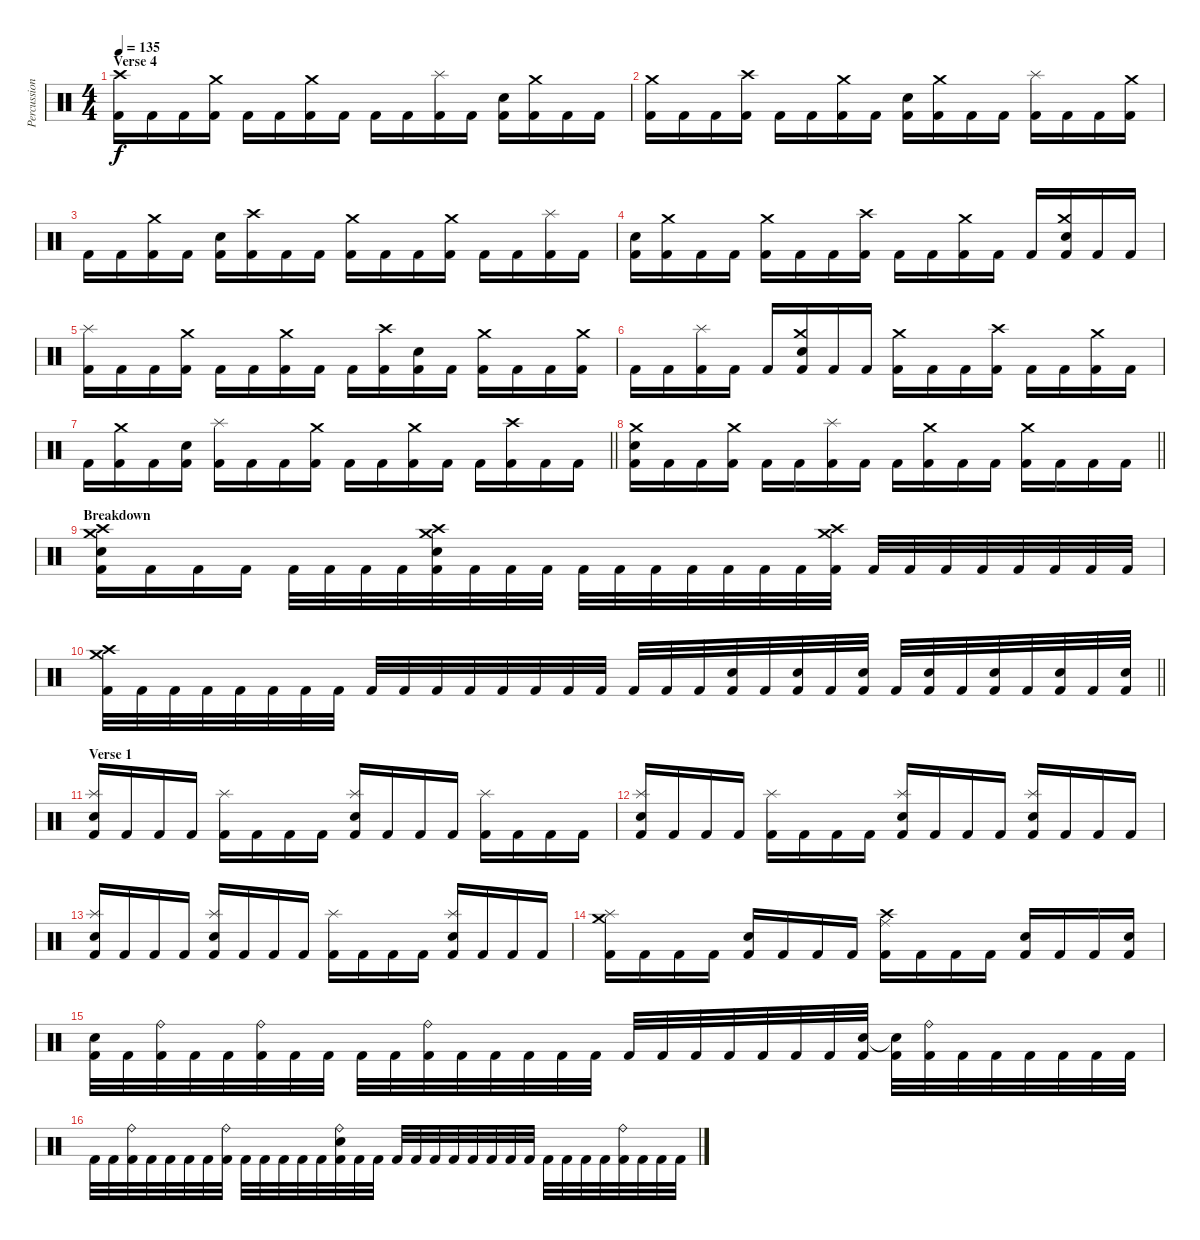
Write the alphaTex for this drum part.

\track ("Percussion" "Percussion") {instrument percussion}
\staff {score}
\articulation defaults
\ts (4 4)
\section ("" "Verse 4")
\tempo 135
\clef neutral
\ks c
("Crash high (hit)" "Kick (hit) 2").16{dy f} "Kick (hit) 2".16 "Kick (hit) 2".16 ("Crash medium (hit)" "Kick (hit) 2").16 "Kick (hit) 2".16 "Kick (hit) 2".16 ("Crash medium (hit)" "Kick (hit) 2").16 "Kick (hit) 2".16 "Kick (hit) 2".16 "Kick (hit) 2".16 ("Splash (hit)" "Kick (hit) 2").16 "Kick (hit) 2".16 ("Electric Snare (hit)" "Kick (hit) 2").16 ("Crash medium (hit)" "Kick (hit) 2").16 "Kick (hit) 2".16 "Kick (hit) 2".16 |
("Crash medium (hit)" "Kick (hit) 2").16 "Kick (hit) 2".16 "Kick (hit) 2".16 ("Crash high (hit)" "Kick (hit) 2").16 "Kick (hit) 2".16 "Kick (hit) 2".16 ("Crash medium (hit)" "Kick (hit) 2").16 "Kick (hit) 2".16 ("Electric Snare (hit)" "Kick (hit) 2").16 ("Crash medium (hit)" "Kick (hit) 2").16 "Kick (hit) 2".16 "Kick (hit) 2".16 ("Splash (hit)" "Kick (hit) 2").16 "Kick (hit) 2".16 "Kick (hit) 2".16 ("Crash medium (hit)" "Kick (hit) 2").16 |
"Kick (hit) 2".16 "Kick (hit) 2".16 ("Crash medium (hit)" "Kick (hit) 2").16 "Kick (hit) 2".16 ("Electric Snare (hit)" "Kick (hit) 2").16 ("Crash high (hit)" "Kick (hit) 2").16 "Kick (hit) 2".16 "Kick (hit) 2".16 ("Crash medium (hit)" "Kick (hit) 2").16 "Kick (hit) 2".16 "Kick (hit) 2".16 ("Crash medium (hit)" "Kick (hit) 2").16 "Kick (hit) 2".16 "Kick (hit) 2".16 ("Splash (hit)" "Kick (hit) 2").16 "Kick (hit) 2".16 |
("Electric Snare (hit)" "Kick (hit) 2").16 ("Crash medium (hit)" "Kick (hit) 2").16 "Kick (hit) 2".16 "Kick (hit) 2".16 ("Crash medium (hit)" "Kick (hit) 2").16 "Kick (hit) 2".16 "Kick (hit) 2".16 ("Crash high (hit)" "Kick (hit) 2").16 "Kick (hit) 2".16 "Kick (hit) 2".16 ("Crash medium (hit)" "Kick (hit) 2").16 "Kick (hit) 2".16 "Kick (hit) 2".16 ("Crash medium (hit)" "Electric Snare (hit)" "Kick (hit) 2").16 "Kick (hit) 2".16 "Kick (hit) 2".16 |
("Splash (hit)" "Kick (hit) 2").16 "Kick (hit) 2".16 "Kick (hit) 2".16 ("Crash medium (hit)" "Kick (hit) 2").16 "Kick (hit) 2".16 "Kick (hit) 2".16 ("Crash medium (hit)" "Kick (hit) 2").16 "Kick (hit) 2".16 "Kick (hit) 2".16 ("Crash high (hit)" "Kick (hit) 2").16 ("Electric Snare (hit)" "Kick (hit) 2").16 "Kick (hit) 2".16 ("Crash medium (hit)" "Kick (hit) 2").16 "Kick (hit) 2".16 "Kick (hit) 2".16 ("Crash medium (hit)" "Kick (hit) 2").16 |
"Kick (hit) 2".16 "Kick (hit) 2".16 ("Splash (hit)" "Kick (hit) 2").16 "Kick (hit) 2".16 "Kick (hit) 2".16 ("Crash medium (hit)" "Electric Snare (hit)" "Kick (hit) 2").16 "Kick (hit) 2".16 "Kick (hit) 2".16 ("Crash medium (hit)" "Kick (hit) 2").16 "Kick (hit) 2".16 "Kick (hit) 2".16 ("Crash high (hit)" "Kick (hit) 2").16 "Kick (hit) 2".16 "Kick (hit) 2".16 ("Crash medium (hit)" "Kick (hit) 2").16 "Kick (hit) 2".16 |
\barLineRight lightlight "Kick (hit) 2".16
("Crash medium (hit)" "Kick (hit) 2").16 "Kick (hit) 2".16 ("Electric Snare (hit)" "Kick (hit) 2").16 ("Splash (hit)" "Kick (hit) 2").16 "Kick (hit) 2".16 "Kick (hit) 2".16 ("Crash medium (hit)" "Kick (hit) 2").16 "Kick (hit) 2".16 "Kick (hit) 2".16 ("Crash medium (hit)" "Kick (hit) 2").16 "Kick (hit) 2".16 "Kick (hit) 2".16 ("Crash high (hit)" "Kick (hit) 2").16 "Kick (hit) 2".16 "Kick (hit) 2".16 |
\barLineRight lightlight
("Crash medium (hit)" "Electric Snare (hit)" "Kick (hit) 2").16 "Kick (hit) 2".16 "Kick (hit) 2".16 ("Crash medium (hit)" "Kick (hit) 2").16 "Kick (hit) 2".16 "Kick (hit) 2".16 ("Splash (hit)" "Kick (hit) 2").16 "Kick (hit) 2".16 "Kick (hit) 2".16 ("Crash medium (hit)" "Kick (hit) 2").16 "Kick (hit) 2".16 "Kick (hit) 2".16 ("Crash medium (hit)" "Kick (hit) 2").16 "Kick (hit) 2".16 "Kick (hit) 2".16 "Kick (hit) 2".16 |
\section ("" "Breakdown")
("Crash high (hit)" "Crash medium (hit)" "Electric Snare (hit)" "Kick (hit) 2").16 "Kick (hit) 2".16 "Kick (hit) 2".16 "Kick (hit) 2".16 "Kick (hit) 2".32 "Kick (hit) 2".32 "Kick (hit) 2".32 "Kick (hit) 2".32 ("Crash high (hit)" "Crash medium (hit)" "Electric Snare (hit)" "Kick (hit) 2").32 "Kick (hit) 2".32 "Kick (hit) 2".32 "Kick (hit) 2".32 "Kick (hit) 2".32 "Kick (hit) 2".32 "Kick (hit) 2".32 "Kick (hit) 2".32 "Kick (hit) 2".32 "Kick (hit) 2".32 "Kick (hit) 2".32 ("Crash high (hit)" "Crash medium (hit)" "Kick (hit) 2").32 "Kick (hit) 2".32 "Kick (hit) 2".32 "Kick (hit) 2".32 "Kick (hit) 2".32 "Kick (hit) 2".32 "Kick (hit) 2".32 "Kick (hit) 2".32 "Kick (hit) 2".32 |
\barLineRight lightlight
("Crash high (hit)" "Crash medium (hit)" "Kick (hit) 2").32 "Kick (hit) 2".32 "Kick (hit) 2".32 "Kick (hit) 2".32 "Kick (hit) 2".32 "Kick (hit) 2".32 "Kick (hit) 2".32 "Kick (hit) 2".32 "Kick (hit) 2".32 "Kick (hit) 2".32 "Kick (hit) 2".32 "Kick (hit) 2".32 "Kick (hit) 2".32 "Kick (hit) 2".32 "Kick (hit) 2".32 "Kick (hit) 2".32 "Kick (hit) 2".32 "Kick (hit) 2".32 "Kick (hit) 2".32 ("Electric Snare (hit)" "Kick (hit) 2").32 "Kick (hit) 2".32 ("Electric Snare (hit)" "Kick (hit) 2").32 "Kick (hit) 2".32 ("Electric Snare (hit)" "Kick (hit) 2").32 "Kick (hit) 2".32 ("Electric Snare (hit)" "Kick (hit) 2").32 "Kick (hit) 2".32 ("Electric Snare (hit)" "Kick (hit) 2").32 "Kick (hit) 2".32 ("Electric Snare (hit)" "Kick (hit) 2").32 "Kick (hit) 2".32 ("Electric Snare (hit)" "Kick (hit) 2").32 |
\section ("" "Verse 1")
("Splash (hit)" "Electric Snare (hit)" "Kick (hit) 2").16 "Kick (hit) 2".16 "Kick (hit) 2".16 "Kick (hit) 2".16 ("Splash (hit)" "Kick (hit) 2").16 "Kick (hit) 2".16 "Kick (hit) 2".16 "Kick (hit) 2".16 ("Splash (hit)" "Electric Snare (hit)" "Kick (hit) 2").16 "Kick (hit) 2".16 "Kick (hit) 2".16 "Kick (hit) 2".16 ("Splash (hit)" "Kick (hit) 2").16 "Kick (hit) 2".16 "Kick (hit) 2".16 "Kick (hit) 2".16 |
("Splash (hit)" "Electric Snare (hit)" "Kick (hit) 2").16 "Kick (hit) 2".16 "Kick (hit) 2".16 "Kick (hit) 2".16 ("Splash (hit)" "Kick (hit) 2").16 "Kick (hit) 2".16 "Kick (hit) 2".16 "Kick (hit) 2".16 ("Splash (hit)" "Electric Snare (hit)" "Kick (hit) 2").16 "Kick (hit) 2".16 "Kick (hit) 2".16 "Kick (hit) 2".16 ("Splash (hit)" "Electric Snare (hit)" "Kick (hit) 2").16 "Kick (hit) 2".16 "Kick (hit) 2".16 "Kick (hit) 2".16 |
("Splash (hit)" "Electric Snare (hit)" "Kick (hit) 2").16 "Kick (hit) 2".16 "Kick (hit) 2".16 "Kick (hit) 2".16 ("Splash (hit)" "Electric Snare (hit)" "Kick (hit) 2").16 "Kick (hit) 2".16 "Kick (hit) 2".16 "Kick (hit) 2".16 ("Splash (hit)" "Kick (hit) 2").16 "Kick (hit) 2".16 "Kick (hit) 2".16 "Kick (hit) 2".16 ("Splash (hit)" "Electric Snare (hit)" "Kick (hit) 2").16 "Kick (hit) 2".16 "Kick (hit) 2".16 "Kick (hit) 2".16 |
("Crash medium (hit)" "Splash (hit)" "Kick (hit) 2").16 "Kick (hit) 2".16 "Kick (hit) 2".16 "Kick (hit) 2".16 ("Electric Snare (hit)" "Kick (hit) 2").16 "Kick (hit) 2".16 "Kick (hit) 2".16 "Kick (hit) 2".16 ("Crash high (hit)" "Ride (middle)" "Kick (hit) 2").16 "Kick (hit) 2".16 "Kick (hit) 2".16 "Kick (hit) 2".16 ("Electric Snare (hit)" "Kick (hit) 2").16 "Kick (hit) 2".16 "Kick (hit) 2".16 ("Electric Snare (hit)" "Kick (hit) 2").16 |
("Electric Snare (hit)" "Kick (hit) 2").32 "Kick (hit) 2".32 ("Ride (bell)" "Kick (hit) 2").32 "Kick (hit) 2".32 "Kick (hit) 2".32 ("Ride (bell)" "Kick (hit) 2").32 "Kick (hit) 2".32 "Kick (hit) 2".32 "Kick (hit) 2".32 "Kick (hit) 2".32 ("Ride (bell)" "Kick (hit) 2").32 "Kick (hit) 2".32 "Kick (hit) 2".32 "Kick (hit) 2".32 "Kick (hit) 2".32 "Kick (hit) 2".32 "Kick (hit) 2".32 "Kick (hit) 2".32 "Kick (hit) 2".32 "Kick (hit) 2".32 "Kick (hit) 2".32 "Kick (hit) 2".32 "Kick (hit) 2".32 ("Electric Snare (hit)" "Kick (hit) 2").32 ("Electric Snare (hit)"{t} "Kick (hit) 2").32 ("Ride (bell)" "Kick (hit) 2").32 "Kick (hit) 2".32 "Kick (hit) 2".32 "Kick (hit) 2".32 "Kick (hit) 2".32 "Kick (hit) 2".32 "Kick (hit) 2".32 |
"Kick (hit) 2".32 "Kick (hit) 2".32 ("Ride (bell)" "Kick (hit) 2").32 "Kick (hit) 2".32 "Kick (hit) 2".32 "Kick (hit) 2".32 "Kick (hit) 2".32 ("Ride (bell)" "Kick (hit) 2").32 "Kick (hit) 2".32 "Kick (hit) 2".32 "Kick (hit) 2".32 "Kick (hit) 2".32 "Kick (hit) 2".32 ("Ride (bell)" "Electric Snare (hit)" "Kick (hit) 2").32 "Kick (hit) 2".32 "Kick (hit) 2".32 "Kick (hit) 2".32 "Kick (hit) 2".32 "Kick (hit) 2".32 "Kick (hit) 2".32 "Kick (hit) 2".32 "Kick (hit) 2".32 "Kick (hit) 2".32 "Kick (hit) 2".32 "Kick (hit) 2".32 "Kick (hit) 2".32 "Kick (hit) 2".32 "Kick (hit) 2".32 ("Ride (bell)" "Kick (hit) 2").32 "Kick (hit) 2".32 "Kick (hit) 2".32 "Kick (hit) 2".32
